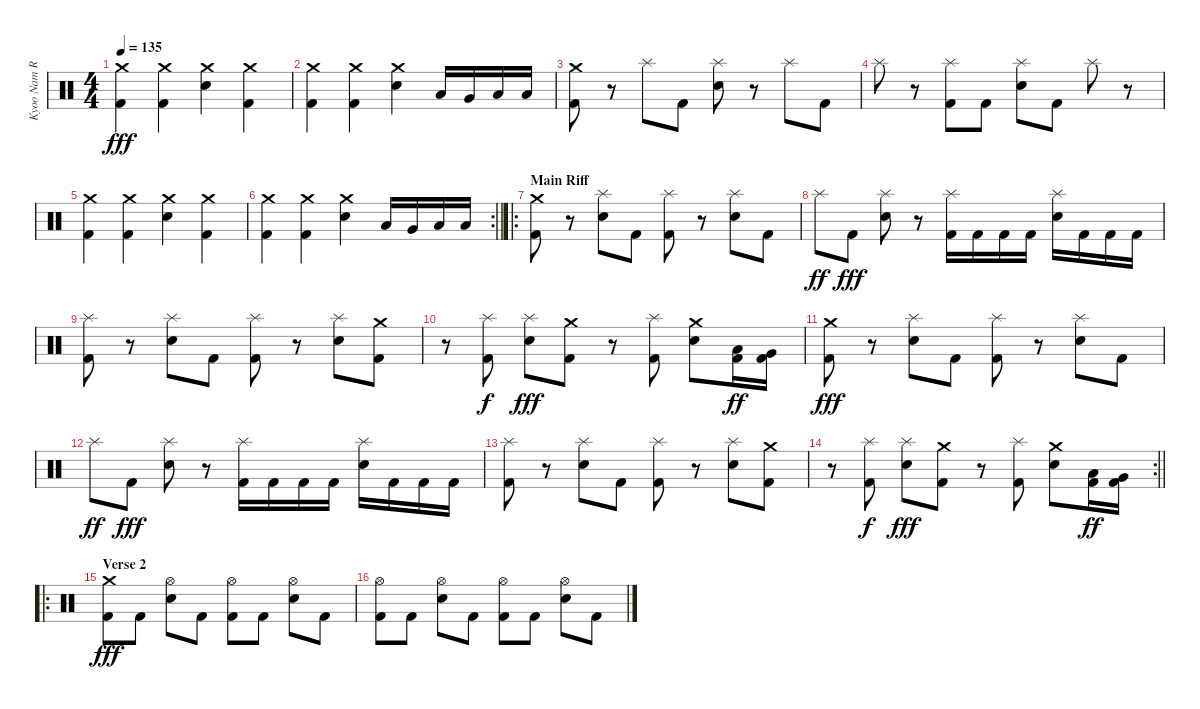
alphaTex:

\track ("Kyoo Nam Rossi (Drums)" "Kyoo Nam R") {instrument percussion}
\staff {score}
\articulation defaults
\ts (4 4)
\tempo 135
\clef neutral
\ks c
("Crash medium (hit)" "Kick (hit) 2").4{dy fff} ("Crash medium (hit)" "Kick (hit) 2").4 ("Crash medium (hit)" "Electric Snare (hit)").4 ("Crash medium (hit)" "Kick (hit) 2").4 |
("Crash medium (hit)" "Kick (hit) 2").4 ("Crash medium (hit)" "Kick (hit) 2").4 ("Crash medium (hit)" "Electric Snare (hit)").4 "Low Tom (hit)".16 "Very Low Tom (hit)".16 "Low Tom (hit)".16 "Low Floor Tom (hit)".16 |
("Crash medium (hit)" "Kick (hit) 2").8 r.8 "Splash (hit)".8 "Kick (hit) 2".8 ("Splash (hit)" "Electric Snare (hit)").8 r.8 "Splash (hit)".8 "Kick (hit) 2".8 |
"Splash (hit)".8 r.8 ("Splash (hit)" "Kick (hit) 2").8 "Kick (hit) 2".8 ("Splash (hit)" "Electric Snare (hit)").8 "Kick (hit) 2".8 "Splash (hit)".8 r.8 |
("Crash medium (hit)" "Kick (hit) 2").4 ("Crash medium (hit)" "Kick (hit) 2").4 ("Crash medium (hit)" "Electric Snare (hit)").4 ("Crash medium (hit)" "Kick (hit) 2").4 |
\rc 2
\barLineRight lightlight
("Crash medium (hit)" "Kick (hit) 2").4 ("Crash medium (hit)" "Kick (hit) 2").4 ("Crash medium (hit)" "Electric Snare (hit)").4 "Low Tom (hit)".16 "Very Low Tom (hit)".16 "Low Tom (hit)".16 "Low Floor Tom (hit)".16 |
\ro
\section ("" "Main Riff")
("Crash medium (hit)" "Kick (hit) 2").8 r.8 ("Splash (hit)" "Electric Snare (hit)").8 "Kick (hit) 2".8 ("Splash (hit)" "Kick (hit) 2").8 r.8 ("Splash (hit)" "Electric Snare (hit)").8 "Kick (hit) 2".8 |
"Splash (hit)".8{dy ff} "Kick (hit) 2".8{dy fff} ("Splash (hit)" "Electric Snare (hit)").8 r.8 ("Splash (hit)" "Kick (hit) 2").16 "Kick (hit) 2".16 "Kick (hit) 2".16 "Kick (hit) 2".16 ("Splash (hit)" "Electric Snare (hit)").16 "Kick (hit) 2".16 "Kick (hit) 2".16 "Kick (hit) 2".16 |
("Splash (hit)" "Kick (hit) 2").8 r.8 ("Splash (hit)" "Electric Snare (hit)").8 "Kick (hit) 2".8 ("Splash (hit)" "Kick (hit) 2").8 r.8 ("Splash (hit)" "Electric Snare (hit)").8 ("Crash medium (hit)" "Kick (hit) 2").8 |
r.8 ("Splash (hit)" "Kick (hit) 2").8{dy f} ("Splash (hit)" "Electric Snare (hit)").8{dy fff} ("Crash medium (hit)" "Kick (hit) 2").8 r.8 ("Splash (hit)" "Kick (hit) 2").8 ("Crash medium (hit)" "Electric Snare (hit)").8 ("Low Tom (hit)" "Kick (hit) 2").16{dy ff} ("Very Low Tom (hit)" "Kick (hit) 2").16 |
("Crash medium (hit)" "Kick (hit) 2").8{dy fff} r.8 ("Splash (hit)" "Electric Snare (hit)").8 "Kick (hit) 2".8 ("Splash (hit)" "Kick (hit) 2").8 r.8 ("Splash (hit)" "Electric Snare (hit)").8 "Kick (hit) 2".8 |
"Splash (hit)".8{dy ff} "Kick (hit) 2".8{dy fff} ("Splash (hit)" "Electric Snare (hit)").8 r.8 ("Splash (hit)" "Kick (hit) 2").16 "Kick (hit) 2".16 "Kick (hit) 2".16 "Kick (hit) 2".16 ("Splash (hit)" "Electric Snare (hit)").16 "Kick (hit) 2".16 "Kick (hit) 2".16 "Kick (hit) 2".16 |
("Splash (hit)" "Kick (hit) 2").8 r.8 ("Splash (hit)" "Electric Snare (hit)").8 "Kick (hit) 2".8 ("Splash (hit)" "Kick (hit) 2").8 r.8 ("Splash (hit)" "Electric Snare (hit)").8 ("Crash medium (hit)" "Kick (hit) 2").8 |
\rc 2
\barLineRight lightlight
r.8 ("Splash (hit)" "Kick (hit) 2").8{dy f} ("Splash (hit)" "Electric Snare (hit)").8{dy fff} ("Crash medium (hit)" "Kick (hit) 2").8 r.8 ("Splash (hit)" "Kick (hit) 2").8 ("Crash medium (hit)" "Electric Snare (hit)").8 ("Low Tom (hit)" "Kick (hit) 2").16{dy ff} ("Very Low Tom (hit)" "Kick (hit) 2").16 |
\ro
\section ("" "Verse 2")
("Crash medium (hit)" "Kick (hit) 2").8{dy fff} "Kick (hit) 2".8 ("Hi-Hat (open)" "Electric Snare (hit)").8 "Kick (hit) 2".8 ("Hi-Hat (open)" "Kick (hit) 2").8 "Kick (hit) 2".8 ("Hi-Hat (open)" "Electric Snare (hit)").8 "Kick (hit) 2".8 |
("Hi-Hat (open)" "Kick (hit) 2").8 "Kick (hit) 2".8 ("Hi-Hat (open)" "Electric Snare (hit)").8 "Kick (hit) 2".8 ("Hi-Hat (open)" "Kick (hit) 2").8 "Kick (hit) 2".8 ("Hi-Hat (open)" "Electric Snare (hit)").8 "Kick (hit) 2".8
